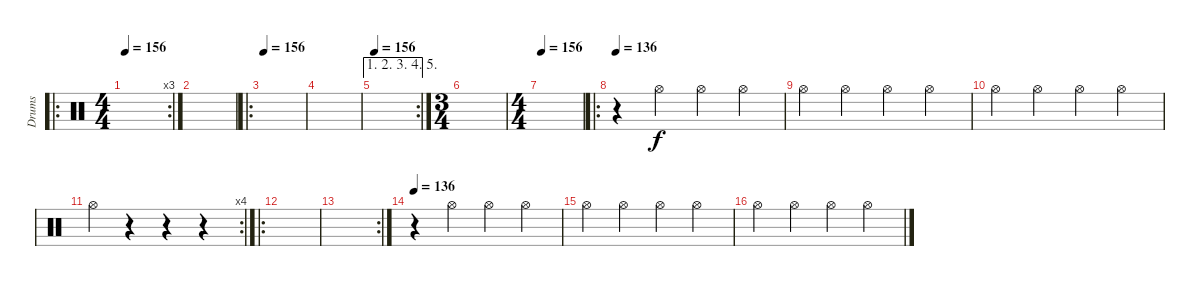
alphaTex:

\track ("Drums" "Drums") {instrument percussion}
\staff {score}
\articulation defaults
\ro
\rc 3
\ts (4 4)
\tempo 156
\clef neutral
\ks c
|
|
\ro
\tempo 156
|
|
\ae (1 2 3 4 5)
\rc 2
\tempo 156
|
\ts (3 4)
|
\ts (4 4)
\tempo 156
|
\ro
\tempo 136
r.4 "Hi-Hat (open)".4 "Hi-Hat (open)".4 "Hi-Hat (open)".4 |
"Hi-Hat (open)".4 "Hi-Hat (open)".4 "Hi-Hat (open)".4 "Hi-Hat (open)".4 |
"Hi-Hat (open)".4 "Hi-Hat (open)".4 "Hi-Hat (open)".4 "Hi-Hat (open)".4 |
\rc 4 "Hi-Hat (open)".4
r.4 r.4 r.4 |
\ro
|
\rc 2
|
\tempo 136
r.4 "Hi-Hat (open)".4 "Hi-Hat (open)".4 "Hi-Hat (open)".4 |
"Hi-Hat (open)".4 "Hi-Hat (open)".4 "Hi-Hat (open)".4 "Hi-Hat (open)".4 |
"Hi-Hat (open)".4 "Hi-Hat (open)".4 "Hi-Hat (open)".4 "Hi-Hat (open)".4
